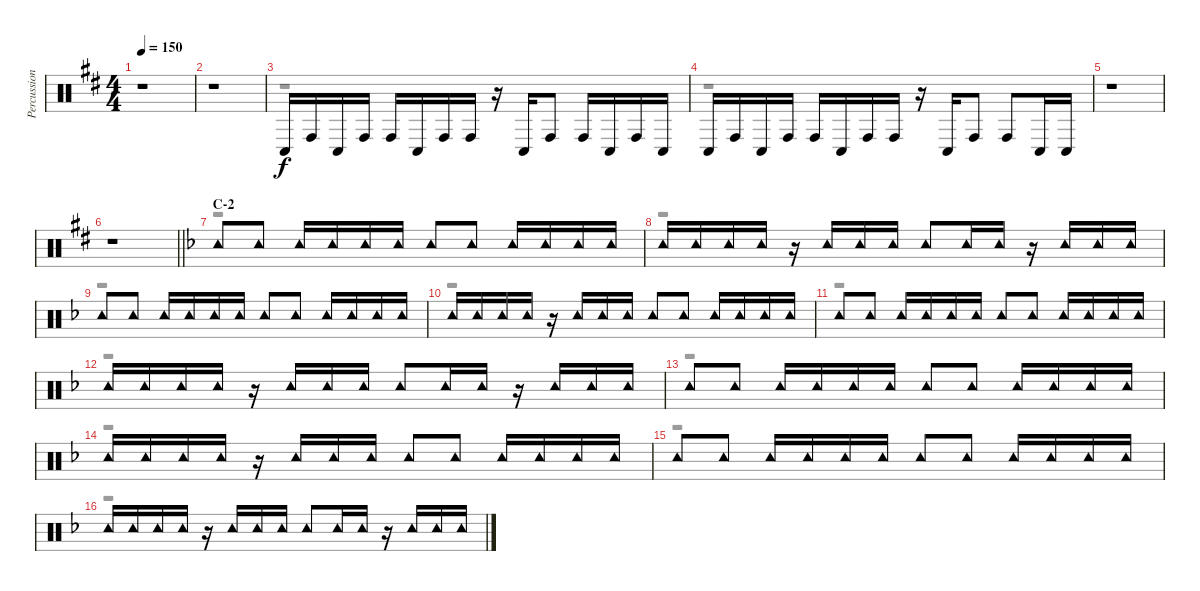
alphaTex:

\track ("Percussion" "Percussion") {instrument percussion}
\staff {score}
\articulation defaults
\voice
\ts (4 4)
\tempo 150
\clef neutral
\ks d
r.1{dy f} |
r.1 |
"Conga low (hit)".16 "Conga high (hit)".16 "Conga low (hit)".16 "Conga high (hit)".16 "Conga high (hit)".16 "Conga low (hit)".16 "Conga high (hit)".16 "Conga high (hit)".16 r.16 "Conga low (hit)".16 "Conga high (hit)".8 "Conga high (hit)".16 "Conga low (hit)".16 "Conga high (hit)".16 "Conga low (hit)".16 |
"Conga low (hit)".16 "Conga high (hit)".16 "Conga low (hit)".16 "Conga high (hit)".16 "Conga high (hit)".16 "Conga low (hit)".16 "Conga high (hit)".16 "Conga high (hit)".16 r.16 "Conga low (hit)".16 "Conga high (hit)".8 "Conga high (hit)".8 "Conga low (hit)".16 "Conga low (hit)".16 |
r.1 |
\barLineRight lightlight
r.1 |
\section ("" "C-2")
\ks f "Tambourine (hit)".8 "Tambourine (hit)".8 "Tambourine (hit)".16 "Tambourine (hit)".16 "Tambourine (hit)".16 "Tambourine (hit)".16 "Tambourine (hit)".8 "Tambourine (hit)".8 "Tambourine (hit)".16 "Tambourine (hit)".16 "Tambourine (hit)".16 "Tambourine (hit)".16
|
"Tambourine (hit)".16 "Tambourine (hit)".16 "Tambourine (hit)".16 "Tambourine (hit)".16 r.16 "Tambourine (hit)".16 "Tambourine (hit)".16 "Tambourine (hit)".16 "Tambourine (hit)".8 "Tambourine (hit)".16 "Tambourine (hit)".16 r.16 "Tambourine (hit)".16 "Tambourine (hit)".16 "Tambourine (hit)".16 |
"Tambourine (hit)".8 "Tambourine (hit)".8 "Tambourine (hit)".16 "Tambourine (hit)".16 "Tambourine (hit)".16 "Tambourine (hit)".16 "Tambourine (hit)".8 "Tambourine (hit)".8 "Tambourine (hit)".16 "Tambourine (hit)".16 "Tambourine (hit)".16 "Tambourine (hit)".16 |
"Tambourine (hit)".16 "Tambourine (hit)".16 "Tambourine (hit)".16 "Tambourine (hit)".16 r.16 "Tambourine (hit)".16 "Tambourine (hit)".16 "Tambourine (hit)".16 "Tambourine (hit)".8 "Tambourine (hit)".8 "Tambourine (hit)".16 "Tambourine (hit)".16 "Tambourine (hit)".16 "Tambourine (hit)".16 |
"Tambourine (hit)".8 "Tambourine (hit)".8 "Tambourine (hit)".16 "Tambourine (hit)".16 "Tambourine (hit)".16 "Tambourine (hit)".16 "Tambourine (hit)".8 "Tambourine (hit)".8 "Tambourine (hit)".16 "Tambourine (hit)".16 "Tambourine (hit)".16 "Tambourine (hit)".16 |
"Tambourine (hit)".16 "Tambourine (hit)".16 "Tambourine (hit)".16 "Tambourine (hit)".16 r.16 "Tambourine (hit)".16 "Tambourine (hit)".16 "Tambourine (hit)".16 "Tambourine (hit)".8 "Tambourine (hit)".16 "Tambourine (hit)".16 r.16 "Tambourine (hit)".16 "Tambourine (hit)".16 "Tambourine (hit)".16 |
"Tambourine (hit)".8 "Tambourine (hit)".8 "Tambourine (hit)".16 "Tambourine (hit)".16 "Tambourine (hit)".16 "Tambourine (hit)".16 "Tambourine (hit)".8 "Tambourine (hit)".8 "Tambourine (hit)".16 "Tambourine (hit)".16 "Tambourine (hit)".16 "Tambourine (hit)".16 |
"Tambourine (hit)".16 "Tambourine (hit)".16 "Tambourine (hit)".16 "Tambourine (hit)".16 r.16 "Tambourine (hit)".16 "Tambourine (hit)".16 "Tambourine (hit)".16 "Tambourine (hit)".8 "Tambourine (hit)".8 "Tambourine (hit)".16 "Tambourine (hit)".16 "Tambourine (hit)".16 "Tambourine (hit)".16 |
"Tambourine (hit)".8 "Tambourine (hit)".8 "Tambourine (hit)".16 "Tambourine (hit)".16 "Tambourine (hit)".16 "Tambourine (hit)".16 "Tambourine (hit)".8 "Tambourine (hit)".8 "Tambourine (hit)".16 "Tambourine (hit)".16 "Tambourine (hit)".16 "Tambourine (hit)".16 |
"Tambourine (hit)".16 "Tambourine (hit)".16 "Tambourine (hit)".16 "Tambourine (hit)".16 r.16 "Tambourine (hit)".16 "Tambourine (hit)".16 "Tambourine (hit)".16 "Tambourine (hit)".8 "Tambourine (hit)".16 "Tambourine (hit)".16 r.16 "Tambourine (hit)".16 "Tambourine (hit)".16 "Tambourine (hit)".16
\voice
\clef neutral
\ottava regular
\simile none
\ks d
r.1{dy f} |
r.1 |
r.1 |
r.1 |
r.1 |
\barLineRight lightlight
r.1 |
\ks f
r.1 |
r.1 |
r.1 |
r.1 |
r.1 |
r.1 |
r.1 |
r.1 |
r.1 |
r.1
